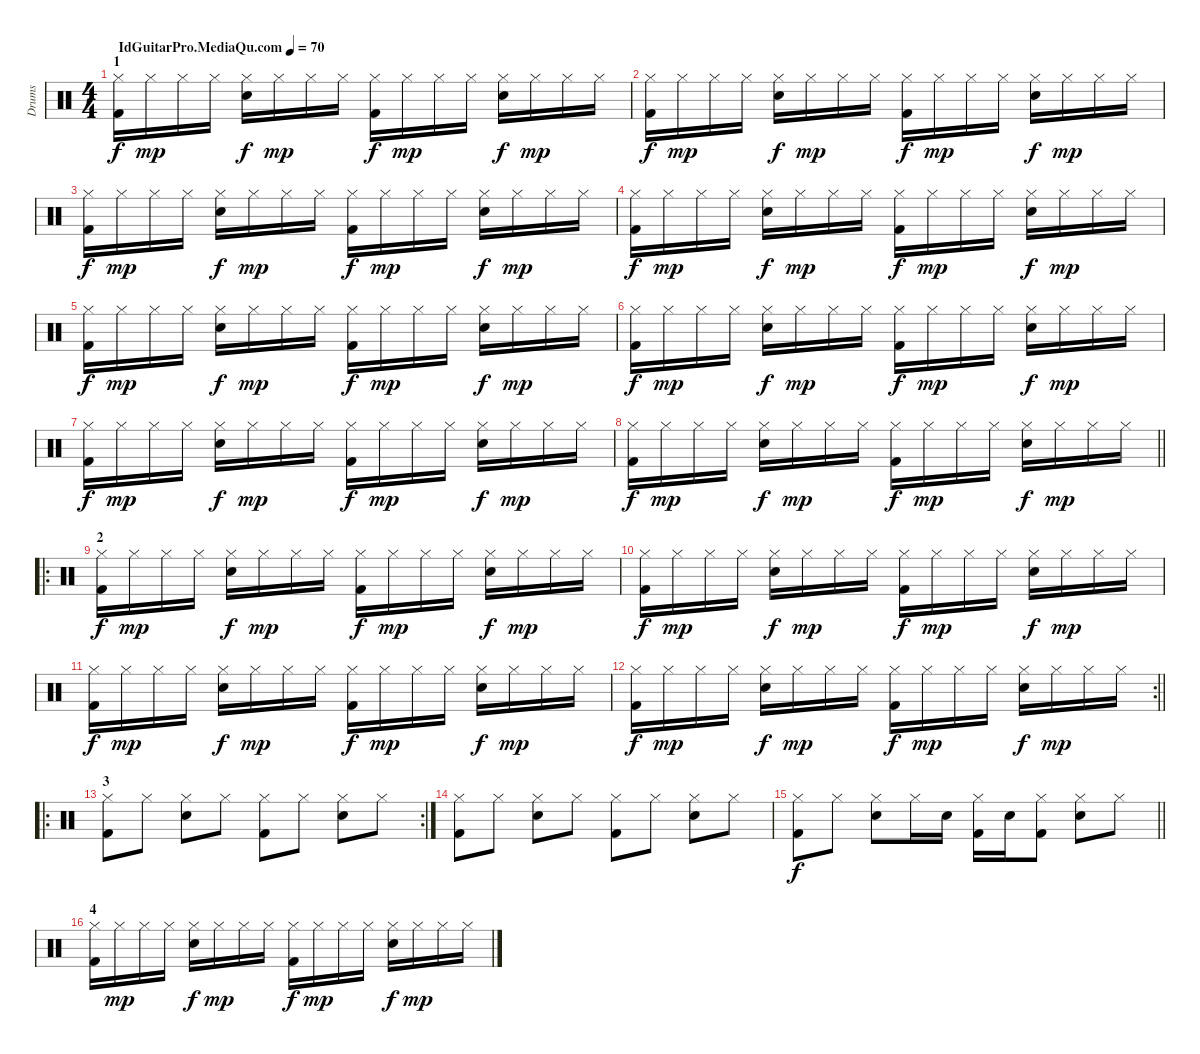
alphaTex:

\track ("Drums" "Drums") {instrument percussion}
\staff {score}
\articulation defaults
\ts (4 4)
\section ("" "1")
\tempo (70 "IdGuitarPro.MediaQu.com")
\clef neutral
\ks c
("Kick (hit) 2" "Hi-Hat (closed)").16{dy f} "Hi-Hat (closed)".16{dy mp} "Hi-Hat (closed)".16 "Hi-Hat (closed)".16 ("Snare (hit) 2" "Hi-Hat (closed)").16{dy f} "Hi-Hat (closed)".16{dy mp} "Hi-Hat (closed)".16 "Hi-Hat (closed)".16 ("Kick (hit) 2" "Hi-Hat (closed)").16{dy f} "Hi-Hat (closed)".16{dy mp} "Hi-Hat (closed)".16 "Hi-Hat (closed)".16 ("Snare (hit) 2" "Hi-Hat (closed)").16{dy f} "Hi-Hat (closed)".16{dy mp} "Hi-Hat (closed)".16 "Hi-Hat (closed)".16 |
("Kick (hit) 2" "Hi-Hat (closed)").16{dy f} "Hi-Hat (closed)".16{dy mp} "Hi-Hat (closed)".16 "Hi-Hat (closed)".16 ("Snare (hit) 2" "Hi-Hat (closed)").16{dy f} "Hi-Hat (closed)".16{dy mp} "Hi-Hat (closed)".16 "Hi-Hat (closed)".16 ("Kick (hit) 2" "Hi-Hat (closed)").16{dy f} "Hi-Hat (closed)".16{dy mp} "Hi-Hat (closed)".16 "Hi-Hat (closed)".16 ("Snare (hit) 2" "Hi-Hat (closed)").16{dy f} "Hi-Hat (closed)".16{dy mp} "Hi-Hat (closed)".16 "Hi-Hat (closed)".16 |
("Kick (hit) 2" "Hi-Hat (closed)").16{dy f} "Hi-Hat (closed)".16{dy mp} "Hi-Hat (closed)".16 "Hi-Hat (closed)".16 ("Snare (hit) 2" "Hi-Hat (closed)").16{dy f} "Hi-Hat (closed)".16{dy mp} "Hi-Hat (closed)".16 "Hi-Hat (closed)".16 ("Kick (hit) 2" "Hi-Hat (closed)").16{dy f} "Hi-Hat (closed)".16{dy mp} "Hi-Hat (closed)".16 "Hi-Hat (closed)".16 ("Snare (hit) 2" "Hi-Hat (closed)").16{dy f} "Hi-Hat (closed)".16{dy mp} "Hi-Hat (closed)".16 "Hi-Hat (closed)".16 |
("Kick (hit) 2" "Hi-Hat (closed)").16{dy f} "Hi-Hat (closed)".16{dy mp} "Hi-Hat (closed)".16 "Hi-Hat (closed)".16 ("Snare (hit) 2" "Hi-Hat (closed)").16{dy f} "Hi-Hat (closed)".16{dy mp} "Hi-Hat (closed)".16 "Hi-Hat (closed)".16 ("Kick (hit) 2" "Hi-Hat (closed)").16{dy f} "Hi-Hat (closed)".16{dy mp} "Hi-Hat (closed)".16 "Hi-Hat (closed)".16 ("Snare (hit) 2" "Hi-Hat (closed)").16{dy f} "Hi-Hat (closed)".16{dy mp} "Hi-Hat (closed)".16 "Hi-Hat (closed)".16 |
("Kick (hit) 2" "Hi-Hat (closed)").16{dy f} "Hi-Hat (closed)".16{dy mp} "Hi-Hat (closed)".16 "Hi-Hat (closed)".16 ("Snare (hit) 2" "Hi-Hat (closed)").16{dy f} "Hi-Hat (closed)".16{dy mp} "Hi-Hat (closed)".16 "Hi-Hat (closed)".16 ("Kick (hit) 2" "Hi-Hat (closed)").16{dy f} "Hi-Hat (closed)".16{dy mp} "Hi-Hat (closed)".16 "Hi-Hat (closed)".16 ("Snare (hit) 2" "Hi-Hat (closed)").16{dy f} "Hi-Hat (closed)".16{dy mp} "Hi-Hat (closed)".16 "Hi-Hat (closed)".16 |
("Kick (hit) 2" "Hi-Hat (closed)").16{dy f} "Hi-Hat (closed)".16{dy mp} "Hi-Hat (closed)".16 "Hi-Hat (closed)".16 ("Snare (hit) 2" "Hi-Hat (closed)").16{dy f} "Hi-Hat (closed)".16{dy mp} "Hi-Hat (closed)".16 "Hi-Hat (closed)".16 ("Kick (hit) 2" "Hi-Hat (closed)").16{dy f} "Hi-Hat (closed)".16{dy mp} "Hi-Hat (closed)".16 "Hi-Hat (closed)".16 ("Snare (hit) 2" "Hi-Hat (closed)").16{dy f} "Hi-Hat (closed)".16{dy mp} "Hi-Hat (closed)".16 "Hi-Hat (closed)".16 |
("Kick (hit) 2" "Hi-Hat (closed)").16{dy f} "Hi-Hat (closed)".16{dy mp} "Hi-Hat (closed)".16 "Hi-Hat (closed)".16 ("Snare (hit) 2" "Hi-Hat (closed)").16{dy f} "Hi-Hat (closed)".16{dy mp} "Hi-Hat (closed)".16 "Hi-Hat (closed)".16 ("Kick (hit) 2" "Hi-Hat (closed)").16{dy f} "Hi-Hat (closed)".16{dy mp} "Hi-Hat (closed)".16 "Hi-Hat (closed)".16 ("Snare (hit) 2" "Hi-Hat (closed)").16{dy f} "Hi-Hat (closed)".16{dy mp} "Hi-Hat (closed)".16 "Hi-Hat (closed)".16 |
\barLineRight lightlight
("Kick (hit) 2" "Hi-Hat (closed)").16{dy f} "Hi-Hat (closed)".16{dy mp} "Hi-Hat (closed)".16 "Hi-Hat (closed)".16 ("Snare (hit) 2" "Hi-Hat (closed)").16{dy f} "Hi-Hat (closed)".16{dy mp} "Hi-Hat (closed)".16 "Hi-Hat (closed)".16 ("Kick (hit) 2" "Hi-Hat (closed)").16{dy f} "Hi-Hat (closed)".16{dy mp} "Hi-Hat (closed)".16 "Hi-Hat (closed)".16 ("Snare (hit) 2" "Hi-Hat (closed)").16{dy f} "Hi-Hat (closed)".16{dy mp} "Hi-Hat (closed)".16 "Hi-Hat (closed)".16 |
\ro
\section ("" "2")
("Kick (hit) 2" "Hi-Hat (closed)").16{dy f} "Hi-Hat (closed)".16{dy mp} "Hi-Hat (closed)".16 "Hi-Hat (closed)".16 ("Snare (hit) 2" "Hi-Hat (closed)").16{dy f} "Hi-Hat (closed)".16{dy mp} "Hi-Hat (closed)".16 "Hi-Hat (closed)".16 ("Kick (hit) 2" "Hi-Hat (closed)").16{dy f} "Hi-Hat (closed)".16{dy mp} "Hi-Hat (closed)".16 "Hi-Hat (closed)".16 ("Snare (hit) 2" "Hi-Hat (closed)").16{dy f} "Hi-Hat (closed)".16{dy mp} "Hi-Hat (closed)".16 "Hi-Hat (closed)".16 |
("Kick (hit) 2" "Hi-Hat (closed)").16{dy f} "Hi-Hat (closed)".16{dy mp} "Hi-Hat (closed)".16 "Hi-Hat (closed)".16 ("Snare (hit) 2" "Hi-Hat (closed)").16{dy f} "Hi-Hat (closed)".16{dy mp} "Hi-Hat (closed)".16 "Hi-Hat (closed)".16 ("Kick (hit) 2" "Hi-Hat (closed)").16{dy f} "Hi-Hat (closed)".16{dy mp} "Hi-Hat (closed)".16 "Hi-Hat (closed)".16 ("Snare (hit) 2" "Hi-Hat (closed)").16{dy f} "Hi-Hat (closed)".16{dy mp} "Hi-Hat (closed)".16 "Hi-Hat (closed)".16 |
("Kick (hit) 2" "Hi-Hat (closed)").16{dy f} "Hi-Hat (closed)".16{dy mp} "Hi-Hat (closed)".16 "Hi-Hat (closed)".16 ("Snare (hit) 2" "Hi-Hat (closed)").16{dy f} "Hi-Hat (closed)".16{dy mp} "Hi-Hat (closed)".16 "Hi-Hat (closed)".16 ("Kick (hit) 2" "Hi-Hat (closed)").16{dy f} "Hi-Hat (closed)".16{dy mp} "Hi-Hat (closed)".16 "Hi-Hat (closed)".16 ("Snare (hit) 2" "Hi-Hat (closed)").16{dy f} "Hi-Hat (closed)".16{dy mp} "Hi-Hat (closed)".16 "Hi-Hat (closed)".16 |
\rc 2
\barLineRight lightlight
("Kick (hit) 2" "Hi-Hat (closed)").16{dy f} "Hi-Hat (closed)".16{dy mp} "Hi-Hat (closed)".16 "Hi-Hat (closed)".16 ("Snare (hit) 2" "Hi-Hat (closed)").16{dy f} "Hi-Hat (closed)".16{dy mp} "Hi-Hat (closed)".16 "Hi-Hat (closed)".16 ("Kick (hit) 2" "Hi-Hat (closed)").16{dy f} "Hi-Hat (closed)".16{dy mp} "Hi-Hat (closed)".16 "Hi-Hat (closed)".16 ("Snare (hit) 2" "Hi-Hat (closed)").16{dy f} "Hi-Hat (closed)".16{dy mp} "Hi-Hat (closed)".16 "Hi-Hat (closed)".16 |
\ro
\rc 2
\section ("" "3")
("Kick (hit) 2" "Hi-Hat (closed)").8 "Hi-Hat (closed)".8 ("Snare (hit) 2" "Hi-Hat (closed)").8 "Hi-Hat (closed)".8 ("Kick (hit) 2" "Hi-Hat (closed)").8 "Hi-Hat (closed)".8 ("Snare (hit) 2" "Hi-Hat (closed)").8 "Hi-Hat (closed)".8 |
("Kick (hit) 2" "Hi-Hat (closed)").8 "Hi-Hat (closed)".8 ("Snare (hit) 2" "Hi-Hat (closed)").8 "Hi-Hat (closed)".8 ("Kick (hit) 2" "Hi-Hat (closed)").8 "Hi-Hat (closed)".8 ("Snare (hit) 2" "Hi-Hat (closed)").8 "Hi-Hat (closed)".8 |
\barLineRight lightlight
("Kick (hit) 2" "Hi-Hat (closed)").8{dy f} "Hi-Hat (closed)".8 ("Snare (hit) 2" "Hi-Hat (closed)").8 "Hi-Hat (closed)".16 "Snare (hit) 2".16 ("Kick (hit) 2" "Hi-Hat (closed)").16 "Snare (hit) 2".16 ("Kick (hit) 2" "Hi-Hat (closed)").8 ("Snare (hit) 2" "Hi-Hat (closed)").8 "Hi-Hat (closed)".8 |
\section ("" "4")
("Kick (hit) 2" "Hi-Hat (closed)").16 "Hi-Hat (closed)".16{dy mp} "Hi-Hat (closed)".16 "Hi-Hat (closed)".16 ("Snare (hit) 2" "Hi-Hat (closed)").16{dy f} "Hi-Hat (closed)".16{dy mp} "Hi-Hat (closed)".16 "Hi-Hat (closed)".16 ("Kick (hit) 2" "Hi-Hat (closed)").16{dy f} "Hi-Hat (closed)".16{dy mp} "Hi-Hat (closed)".16 "Hi-Hat (closed)".16 ("Snare (hit) 2" "Hi-Hat (closed)").16{dy f} "Hi-Hat (closed)".16{dy mp} "Hi-Hat (closed)".16 "Hi-Hat (closed)".16
